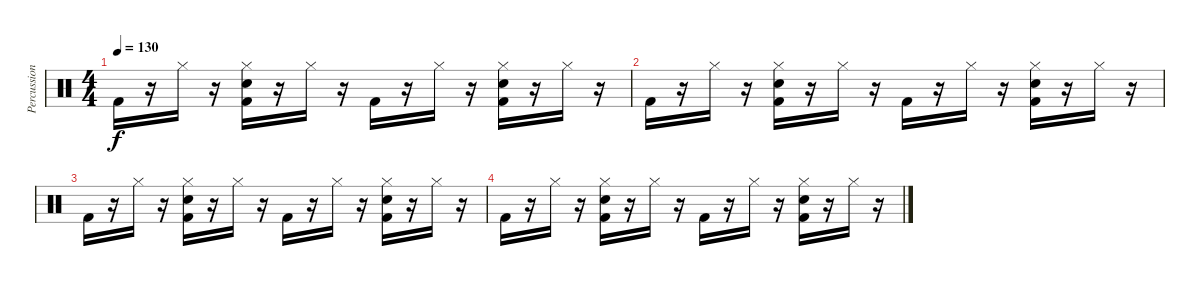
\track ("Percussion" "Percussion") {instrument percussion}
\staff {score}
\articulation defaults
\ts (4 4)
\tempo 130
\clef neutral
\ks c "Kick (hit) 2".16{dy f}
r.16 "Hi-Hat (closed)".16 r.16 ("Hi-Hat (closed)" "Electric Snare (hit)" "Kick (hit) 2").16 r.16 "Hi-Hat (closed)".16 r.16 "Kick (hit) 2".16 r.16 "Hi-Hat (closed)".16 r.16 ("Hi-Hat (closed)" "Electric Snare (hit)" "Kick (hit) 2").16 r.16 "Hi-Hat (closed)".16 r.16 |
"Kick (hit) 2".16 r.16 "Hi-Hat (closed)".16 r.16 ("Hi-Hat (closed)" "Electric Snare (hit)" "Kick (hit) 2").16 r.16 "Hi-Hat (closed)".16 r.16 "Kick (hit) 2".16 r.16 "Hi-Hat (closed)".16 r.16 ("Hi-Hat (closed)" "Electric Snare (hit)" "Kick (hit) 2").16 r.16 "Hi-Hat (closed)".16 r.16 |
"Kick (hit) 2".16 r.16 "Hi-Hat (closed)".16 r.16 ("Hi-Hat (closed)" "Electric Snare (hit)" "Kick (hit) 2").16 r.16 "Hi-Hat (closed)".16 r.16 "Kick (hit) 2".16 r.16 "Hi-Hat (closed)".16 r.16 ("Hi-Hat (closed)" "Electric Snare (hit)" "Kick (hit) 2").16 r.16 "Hi-Hat (closed)".16 r.16 |
"Kick (hit) 2".16 r.16 "Hi-Hat (closed)".16 r.16 ("Hi-Hat (closed)" "Electric Snare (hit)" "Kick (hit) 2").16 r.16 "Hi-Hat (closed)".16 r.16 "Kick (hit) 2".16 r.16 "Hi-Hat (closed)".16 r.16 ("Hi-Hat (closed)" "Electric Snare (hit)" "Kick (hit) 2").16 r.16 "Hi-Hat (closed)".16 r.16
